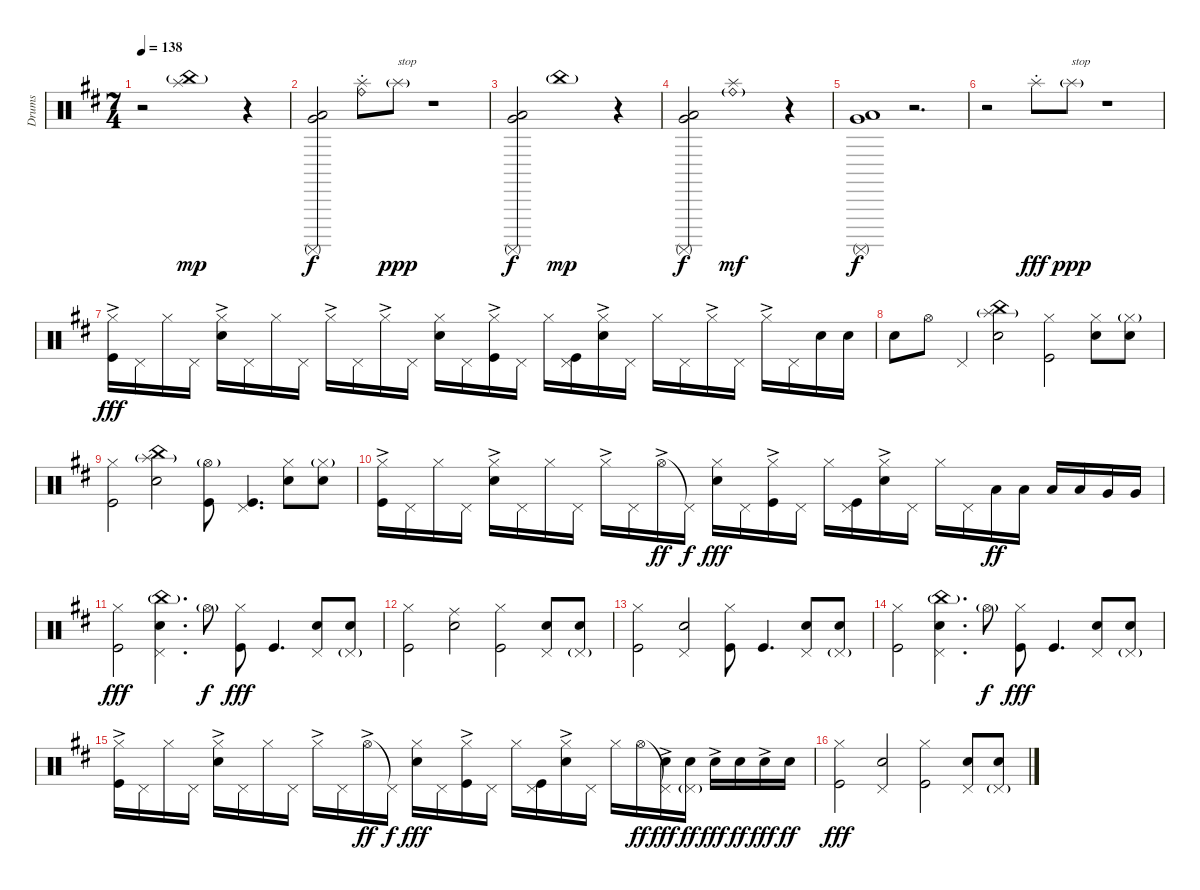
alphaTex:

\track ("Drums" "Drums") {instrument percussion}
\staff {score}
\articulation defaults
\ts (7 4)
\tempo 138
\clef neutral
\ks d
r.2{dy mp} ("Splash (hit)" "China (hit)"{g}).1 r.4 |
("Very Low Tom (hit)" "Low Floor Tom (hit)" "Surdo (mute)").2{bd 120 dy f} ("Splash (hit)"{st} "Ride (bell)").8 "Splash (hit)"{g}.8{txt "stop" dy ppp} r.1 |
("Very Low Tom (hit)" "Low Floor Tom (hit)" "Surdo (mute)").2{bd 120 dy f} "China (hit)"{g}.1{dy mp} r.4 |
("Very Low Tom (hit)" "Low Floor Tom (hit)" "Surdo (mute)").2{bd 120 dy f} ("Splash (hit)" "Ride (bell)"{g}).1{dy mf} r.4 |
("Very Low Tom (hit)" "Low Floor Tom (hit)" "Surdo (mute)").1{bd 120 dy f} r.2{d} |
r.2 "Splash (hit)"{st}.8{dy fff} "Splash (hit)"{g}.8{txt "stop" dy ppp} r.1 |
("Hi-Hat (closed)"{ac} "Kick (hit)").16{dy fff} "Pedal Hi-Hat (hit)".16 "Hi-Hat (closed)".16 "Pedal Hi-Hat (hit)".16 ("Hi-Hat (closed)"{ac} "Electric Snare (hit)").16 "Pedal Hi-Hat (hit)".16 "Hi-Hat (closed)".16 "Pedal Hi-Hat (hit)".16 "Hi-Hat (closed)"{ac}.16 "Pedal Hi-Hat (hit)".16 "Hi-Hat (closed)"{ac}.16 "Pedal Hi-Hat (hit)".16 ("Hi-Hat (closed)" "Electric Snare (hit)").16 "Pedal Hi-Hat (hit)".16 ("Hi-Hat (closed)"{ac} "Kick (hit)").16 "Pedal Hi-Hat (hit)".16 "Hi-Hat (closed)".16 ("Pedal Hi-Hat (hit)" "Kick (hit)").16 ("Hi-Hat (closed)"{ac} "Electric Snare (hit)").16 "Pedal Hi-Hat (hit)".16 "Hi-Hat (closed)".16 "Pedal Hi-Hat (hit)".16 "Hi-Hat (closed)"{ac}.16 "Pedal Hi-Hat (hit)".16 "Hi-Hat (closed)"{ac}.16 "Pedal Hi-Hat (hit)".16 "Electric Snare (hit)".16 "Electric Snare (hit)".16 |
"Electric Snare (hit)".8 "Hi-Hat (open)".8 "Pedal Hi-Hat (hit)".4 ("China (hit)" "Splash (hit)"{g} "Electric Snare (hit)").2 ("Hi-Hat (closed)" "Kick (hit)").2 ("Hi-Hat (closed)" "Electric Snare (hit)").8 ("Hi-Hat (closed)"{g} "Electric Snare (hit)").8 |
("Hi-Hat (closed)" "Kick (hit)").2 ("China (hit)" "Splash (hit)"{g} "Electric Snare (hit)").2 ("Hi-Hat (open)"{g} "Kick (hit)").8 ("Pedal Hi-Hat (hit)" "Kick (hit)").4{d} ("Hi-Hat (closed)" "Electric Snare (hit)").8 ("Hi-Hat (closed)"{g} "Electric Snare (hit)").8 |
("Hi-Hat (closed)"{ac} "Kick (hit)").16 "Pedal Hi-Hat (hit)".16 "Hi-Hat (closed)".16 "Pedal Hi-Hat (hit)".16 ("Hi-Hat (closed)"{ac} "Electric Snare (hit)").16 "Pedal Hi-Hat (hit)".16 "Hi-Hat (closed)".16 "Pedal Hi-Hat (hit)".16 "Hi-Hat (closed)"{ac}.16 "Pedal Hi-Hat (hit)".16 "Hi-Hat (open)"{ac}.16{dy ff} "Pedal Hi-Hat (hit)"{t}.16{dy f} ("Hi-Hat (closed)" "Electric Snare (hit)").16{dy fff} "Pedal Hi-Hat (hit)".16 ("Hi-Hat (closed)"{ac} "Kick (hit)").16 "Pedal Hi-Hat (hit)".16 "Hi-Hat (closed)".16 ("Pedal Hi-Hat (hit)" "Kick (hit)").16 ("Hi-Hat (closed)"{ac} "Electric Snare (hit)").16 "Pedal Hi-Hat (hit)".16 "Hi-Hat (closed)".16 "Pedal Hi-Hat (hit)".16 "Low Tom (hit)".16{dy ff} "Low Tom (hit)".16 "Low Tom (hit)".16 "Low Tom (hit)".16 "Very Low Tom (hit)".16 "Very Low Tom (hit)".16 |
("Hi-Hat (closed)" "Kick (hit)").2{dy fff} ("Pedal Hi-Hat (hit)" "China (hit)"{g} "Electric Snare (hit)").4{d} "Hi-Hat (open)"{g}.8{dy f} ("Hi-Hat (closed)" "Kick (hit)").8{dy fff} "Kick (hit)".4{d} ("Pedal Hi-Hat (hit)" "Electric Snare (hit)").8 ("Pedal Hi-Hat (hit)"{g} "Electric Snare (hit)").8 |
("Hi-Hat (closed)" "Kick (hit)").2 ("Ride (middle)" "Electric Snare (hit)").2 ("Hi-Hat (closed)" "Kick (hit)").2 ("Pedal Hi-Hat (hit)" "Electric Snare (hit)").8 ("Pedal Hi-Hat (hit)"{g} "Electric Snare (hit)").8 |
("Hi-Hat (closed)" "Kick (hit)").2 ("Pedal Hi-Hat (hit)" "Electric Snare (hit)").2 ("Hi-Hat (closed)" "Kick (hit)").8 "Kick (hit)".4{d} ("Pedal Hi-Hat (hit)" "Electric Snare (hit)").8 ("Pedal Hi-Hat (hit)"{g} "Electric Snare (hit)").8 |
("Hi-Hat (closed)" "Kick (hit)").2 ("Pedal Hi-Hat (hit)" "China (hit)"{g} "Electric Snare (hit)").4{d} "Hi-Hat (open)"{g}.8{dy f} ("Hi-Hat (closed)" "Kick (hit)").8{dy fff} "Kick (hit)".4{d} ("Pedal Hi-Hat (hit)" "Electric Snare (hit)").8 ("Pedal Hi-Hat (hit)"{g} "Electric Snare (hit)").8 |
("Hi-Hat (closed)"{ac} "Kick (hit)").16 "Pedal Hi-Hat (hit)".16 "Hi-Hat (closed)".16 "Pedal Hi-Hat (hit)".16 ("Hi-Hat (closed)"{ac} "Electric Snare (hit)").16 "Pedal Hi-Hat (hit)".16 "Hi-Hat (closed)".16 "Pedal Hi-Hat (hit)".16 "Hi-Hat (closed)"{ac}.16 "Pedal Hi-Hat (hit)".16 "Hi-Hat (open)"{ac}.16{dy ff} "Pedal Hi-Hat (hit)"{t}.16{dy f} ("Hi-Hat (closed)" "Electric Snare (hit)").16{dy fff} "Pedal Hi-Hat (hit)".16 ("Hi-Hat (closed)"{ac} "Kick (hit)").16 "Pedal Hi-Hat (hit)".16 "Hi-Hat (closed)".16 ("Pedal Hi-Hat (hit)" "Kick (hit)").16 ("Hi-Hat (closed)"{ac} "Electric Snare (hit)").16 "Pedal Hi-Hat (hit)".16 "Hi-Hat (closed)".16 "Hi-Hat (open)".16{dy ff} ("Pedal Hi-Hat (hit)"{t} "Electric Snare (hit)"{ac}).16{dy fff} ("Pedal Hi-Hat (hit)"{g} "Electric Snare (hit)").16{dy ff} "Electric Snare (hit)"{ac}.16{dy fff} "Electric Snare (hit)".16{dy ff} "Electric Snare (hit)"{ac}.16{dy fff} "Electric Snare (hit)".16{dy ff} |
("Hi-Hat (closed)" "Kick (hit)").2{dy fff} ("Pedal Hi-Hat (hit)" "Electric Snare (hit)").2 ("Hi-Hat (closed)" "Kick (hit)").2 ("Pedal Hi-Hat (hit)" "Electric Snare (hit)").8 ("Pedal Hi-Hat (hit)"{g} "Electric Snare (hit)").8
